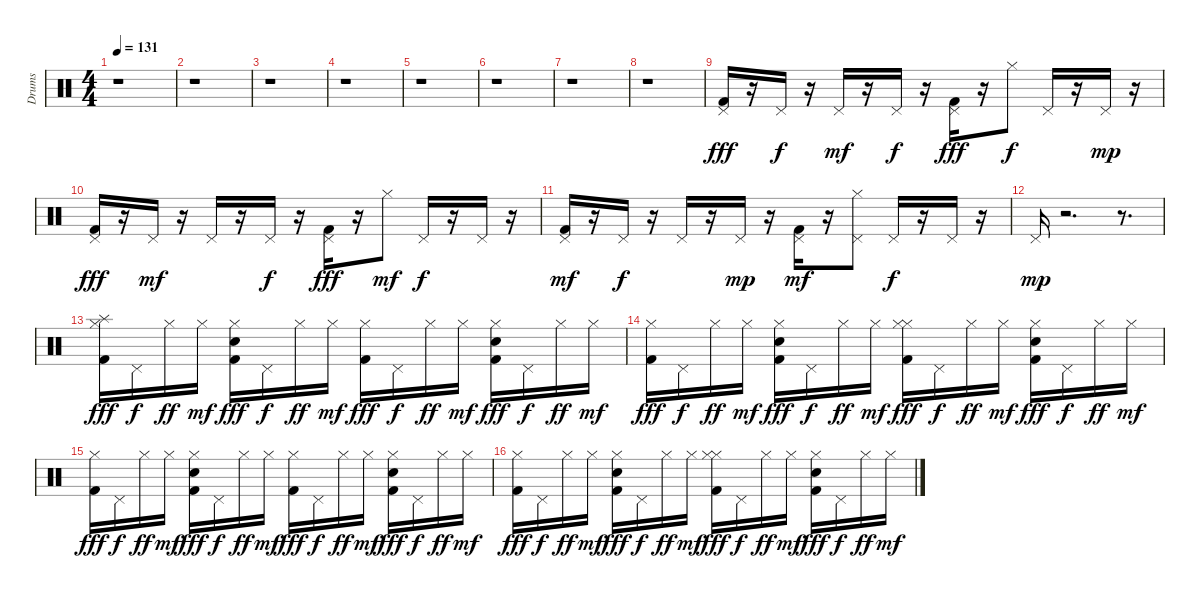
\track ("Drums" "Drums") {instrument percussion}
\staff {score}
\articulation defaults
\ts (4 4)
\tempo 131
\clef neutral
\ks c
r.1{dy fff} |
r.1 |
r.1 |
r.1 |
r.1 |
r.1 |
r.1 |
r.1 |
("Pedal Hi-Hat (hit)" "Kick (hit) 2").16 r.16 "Pedal Hi-Hat (hit)".16{dy f} r.16 "Pedal Hi-Hat (hit)".16{dy mf} r.16 "Pedal Hi-Hat (hit)".16{dy f} r.16 ("Kick (hit) 2" "Pedal Hi-Hat (hit)").16{dy fff} r.16 "Hi-Hat (closed)".8{dy f} "Pedal Hi-Hat (hit)".16 r.16 "Pedal Hi-Hat (hit)".16{dy mp} r.16 |
("Kick (hit) 2" "Pedal Hi-Hat (hit)").16{dy fff} r.16 "Pedal Hi-Hat (hit)".16{dy mf} r.16 "Pedal Hi-Hat (hit)".16 r.16 "Pedal Hi-Hat (hit)".16{dy f} r.16 ("Kick (hit) 2" "Pedal Hi-Hat (hit)").16{dy fff} r.16 "Hi-Hat (closed)".8{dy mf} "Pedal Hi-Hat (hit)".16{dy f} r.16 "Pedal Hi-Hat (hit)".16 r.16 |
("Kick (hit) 2" "Pedal Hi-Hat (hit)").16{dy mf} r.16 "Pedal Hi-Hat (hit)".16{dy f} r.16 "Pedal Hi-Hat (hit)".16 r.16 "Pedal Hi-Hat (hit)".16{dy mp} r.16 ("Kick (hit) 2" "Pedal Hi-Hat (hit)").16{dy mf} r.16 ("Pedal Hi-Hat (hit)" "Hi-Hat (closed)").8 "Pedal Hi-Hat (hit)".16{dy f} r.16 "Pedal Hi-Hat (hit)".16 r.16 |
"Pedal Hi-Hat (hit)".16{dy mp} r.2{d} r.8{d} |
("Kick (hit) 2" "Splash (hit)" "Hi-Hat (closed)").16{dy fff} "Pedal Hi-Hat (hit)".16{dy f} "Hi-Hat (closed)".16{dy ff} "Hi-Hat (closed)".16{dy mf} ("Kick (hit) 2" "Hand Clap (hit)" "Hi-Hat (closed)").16{dy fff} "Pedal Hi-Hat (hit)".16{dy f} "Hi-Hat (closed)".16{dy ff} "Hi-Hat (closed)".16{dy mf} ("Kick (hit) 2" "Hi-Hat (closed)").16{dy fff} "Pedal Hi-Hat (hit)".16{dy f} "Hi-Hat (closed)".16{dy ff} "Hi-Hat (closed)".16{dy mf} ("Kick (hit) 2" "Hand Clap (hit)" "Hi-Hat (closed)").16{dy fff} "Pedal Hi-Hat (hit)".16{dy f} "Hi-Hat (closed)".16{dy ff} "Hi-Hat (closed)".16{dy mf} |
("Kick (hit) 2" "Hi-Hat (closed)").16{dy fff} "Pedal Hi-Hat (hit)".16{dy f} "Hi-Hat (closed)".16{dy ff} "Hi-Hat (closed)".16{dy mf} ("Kick (hit) 2" "Hand Clap (hit)" "Hi-Hat (closed)").16{dy fff} "Pedal Hi-Hat (hit)".16{dy f} "Hi-Hat (closed)".16{dy ff} "Hi-Hat (closed)".16{dy mf} ("Kick (hit) 2" "Hi-Hat (closed)" "Hi-Hat (closed)").16{dy fff} "Pedal Hi-Hat (hit)".16{dy f} "Hi-Hat (closed)".16{dy ff} "Hi-Hat (closed)".16{dy mf} ("Kick (hit) 2" "Hand Clap (hit)" "Hi-Hat (closed)").16{dy fff} "Pedal Hi-Hat (hit)".16{dy f} "Hi-Hat (closed)".16{dy ff} "Hi-Hat (closed)".16{dy mf} |
("Kick (hit) 2" "Hi-Hat (closed)").16{dy fff} "Pedal Hi-Hat (hit)".16{dy f} "Hi-Hat (closed)".16{dy ff} "Hi-Hat (closed)".16{dy mf} ("Kick (hit) 2" "Hand Clap (hit)" "Hi-Hat (closed)").16{dy fff} "Pedal Hi-Hat (hit)".16{dy f} "Hi-Hat (closed)".16{dy ff} "Hi-Hat (closed)".16{dy mf} ("Kick (hit) 2" "Hi-Hat (closed)").16{dy fff} "Pedal Hi-Hat (hit)".16{dy f} "Hi-Hat (closed)".16{dy ff} "Hi-Hat (closed)".16{dy mf} ("Kick (hit) 2" "Hand Clap (hit)" "Hi-Hat (closed)").16{dy fff} "Pedal Hi-Hat (hit)".16{dy f} "Hi-Hat (closed)".16{dy ff} "Hi-Hat (closed)".16{dy mf} |
("Kick (hit) 2" "Hi-Hat (closed)").16{dy fff} "Pedal Hi-Hat (hit)".16{dy f} "Hi-Hat (closed)".16{dy ff} "Hi-Hat (closed)".16{dy mf} ("Kick (hit) 2" "Hand Clap (hit)" "Hi-Hat (closed)").16{dy fff} "Pedal Hi-Hat (hit)".16{dy f} "Hi-Hat (closed)".16{dy ff} "Hi-Hat (closed)".16{dy mf} ("Kick (hit) 2" "Hi-Hat (closed)" "Hi-Hat (closed)").16{dy fff} "Pedal Hi-Hat (hit)".16{dy f} "Hi-Hat (closed)".16{dy ff} "Hi-Hat (closed)".16{dy mf} ("Kick (hit) 2" "Hand Clap (hit)" "Hi-Hat (closed)").16{dy fff} "Pedal Hi-Hat (hit)".16{dy f} "Hi-Hat (closed)".16{dy ff} "Hi-Hat (closed)".16{dy mf}
